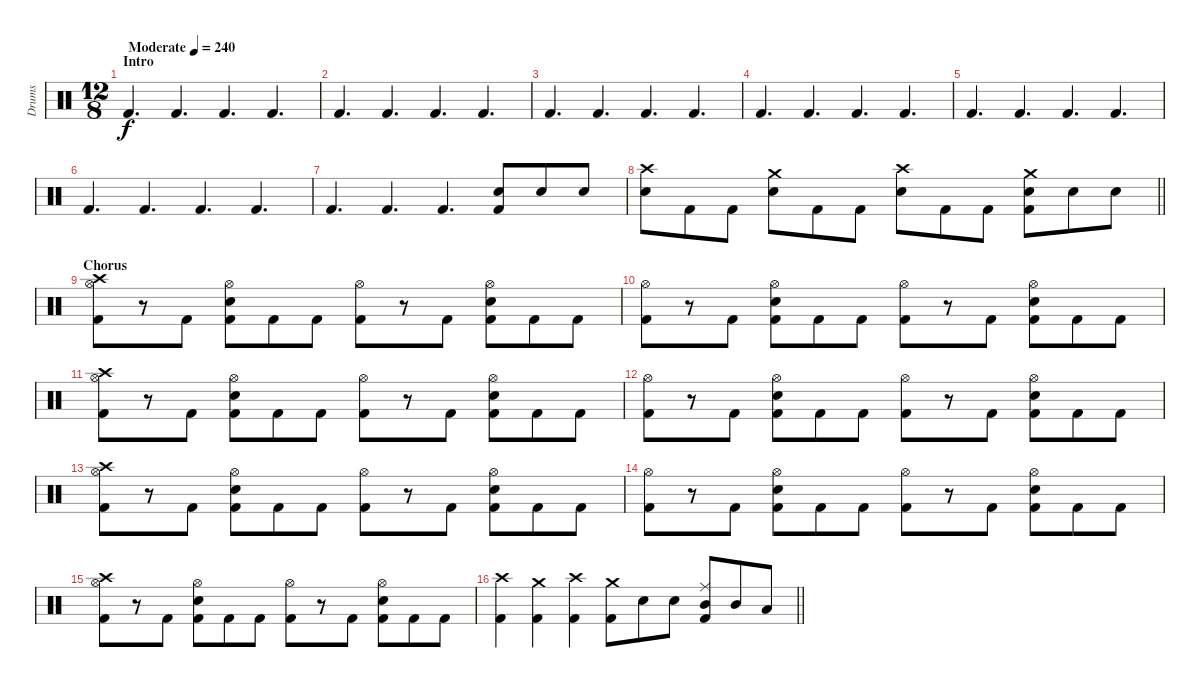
\track ("Drums" "Drums") {instrument percussion}
\staff {score}
\articulation defaults
\ts (12 8)
\section ("" "Intro")
\tempo (240 "Moderate")
\clef neutral
\ks c "Kick (hit) 2".4{d dy f} "Kick (hit) 2".4{d} "Kick (hit) 2".4{d} "Kick (hit) 2".4{d}
|
"Kick (hit) 2".4{d} "Kick (hit) 2".4{d} "Kick (hit) 2".4{d} "Kick (hit) 2".4{d} |
"Kick (hit) 2".4{d} "Kick (hit) 2".4{d} "Kick (hit) 2".4{d} "Kick (hit) 2".4{d} |
"Kick (hit) 2".4{d} "Kick (hit) 2".4{d} "Kick (hit) 2".4{d} "Kick (hit) 2".4{d} |
"Kick (hit) 2".4{d} "Kick (hit) 2".4{d} "Kick (hit) 2".4{d} "Kick (hit) 2".4{d} |
"Kick (hit) 2".4{d} "Kick (hit) 2".4{d} "Kick (hit) 2".4{d} "Kick (hit) 2".4{d} |
"Kick (hit) 2".4{d} "Kick (hit) 2".4{d} "Kick (hit) 2".4{d} ("Snare (hit) 2" "Kick (hit) 2").8 "Snare (hit) 2".8 "Snare (hit) 2".8 |
\barLineRight lightlight
("Crash high (hit)" "Snare (hit) 2").8 "Kick (hit) 2".8 "Kick (hit) 2".8 ("Crash medium (hit)" "Snare (hit) 2").8 "Kick (hit) 2".8 "Kick (hit) 2".8 ("Crash high (hit)" "Snare (hit) 2").8 "Kick (hit) 2".8 "Kick (hit) 2".8 ("Crash medium (hit)" "Snare (hit) 2" "Kick (hit) 2").8 "Snare (hit) 2".8 "Snare (hit) 2".8 |
\section ("" "Chorus")
("Crash high (hit)" "Hi-Hat (open)" "Kick (hit) 2").8 r.8 "Kick (hit) 2".8 ("Hi-Hat (open)" "Snare (hit) 2" "Kick (hit) 2").8 "Kick (hit) 2".8 "Kick (hit) 2".8 ("Hi-Hat (open)" "Kick (hit) 2").8 r.8 "Kick (hit) 2".8 ("Hi-Hat (open)" "Snare (hit) 2" "Kick (hit) 2").8 "Kick (hit) 2".8 "Kick (hit) 2".8 |
("Hi-Hat (open)" "Kick (hit) 2").8 r.8 "Kick (hit) 2".8 ("Hi-Hat (open)" "Snare (hit) 2" "Kick (hit) 2").8 "Kick (hit) 2".8 "Kick (hit) 2".8 ("Hi-Hat (open)" "Kick (hit) 2").8 r.8 "Kick (hit) 2".8 ("Hi-Hat (open)" "Snare (hit) 2" "Kick (hit) 2").8 "Kick (hit) 2".8 "Kick (hit) 2".8 |
("Crash high (hit)" "Hi-Hat (open)" "Kick (hit) 2").8 r.8 "Kick (hit) 2".8 ("Hi-Hat (open)" "Snare (hit) 2" "Kick (hit) 2").8 "Kick (hit) 2".8 "Kick (hit) 2".8 ("Hi-Hat (open)" "Kick (hit) 2").8 r.8 "Kick (hit) 2".8 ("Hi-Hat (open)" "Snare (hit) 2" "Kick (hit) 2").8 "Kick (hit) 2".8 "Kick (hit) 2".8 |
("Hi-Hat (open)" "Kick (hit) 2").8 r.8 "Kick (hit) 2".8 ("Hi-Hat (open)" "Snare (hit) 2" "Kick (hit) 2").8 "Kick (hit) 2".8 "Kick (hit) 2".8 ("Hi-Hat (open)" "Kick (hit) 2").8 r.8 "Kick (hit) 2".8 ("Hi-Hat (open)" "Snare (hit) 2" "Kick (hit) 2").8 "Kick (hit) 2".8 "Kick (hit) 2".8 |
("Crash high (hit)" "Hi-Hat (open)" "Kick (hit) 2").8 r.8 "Kick (hit) 2".8 ("Hi-Hat (open)" "Snare (hit) 2" "Kick (hit) 2").8 "Kick (hit) 2".8 "Kick (hit) 2".8 ("Hi-Hat (open)" "Kick (hit) 2").8 r.8 "Kick (hit) 2".8 ("Hi-Hat (open)" "Snare (hit) 2" "Kick (hit) 2").8 "Kick (hit) 2".8 "Kick (hit) 2".8 |
("Hi-Hat (open)" "Kick (hit) 2").8 r.8 "Kick (hit) 2".8 ("Hi-Hat (open)" "Snare (hit) 2" "Kick (hit) 2").8 "Kick (hit) 2".8 "Kick (hit) 2".8 ("Hi-Hat (open)" "Kick (hit) 2").8 r.8 "Kick (hit) 2".8 ("Hi-Hat (open)" "Snare (hit) 2" "Kick (hit) 2").8 "Kick (hit) 2".8 "Kick (hit) 2".8 |
("Crash high (hit)" "Hi-Hat (open)" "Kick (hit) 2").8 r.8 "Kick (hit) 2".8 ("Hi-Hat (open)" "Snare (hit) 2" "Kick (hit) 2").8 "Kick (hit) 2".8 "Kick (hit) 2".8 ("Hi-Hat (open)" "Kick (hit) 2").8 r.8 "Kick (hit) 2".8 ("Hi-Hat (open)" "Snare (hit) 2" "Kick (hit) 2").8 "Kick (hit) 2".8 "Kick (hit) 2".8 |
\barLineRight lightlight
("Crash high (hit)" "Kick (hit) 2").4 ("Crash medium (hit)" "Kick (hit) 2").4 ("Crash high (hit)" "Kick (hit) 2").4 ("Crash medium (hit)" "Kick (hit) 2").8 "Snare (hit) 2".8 "Snare (hit) 2".8 ("Ride (middle)" "Mid Tom (hit)" "Kick (hit) 2").8 "Mid Tom (hit)".8 "Low Tom (hit)".8
